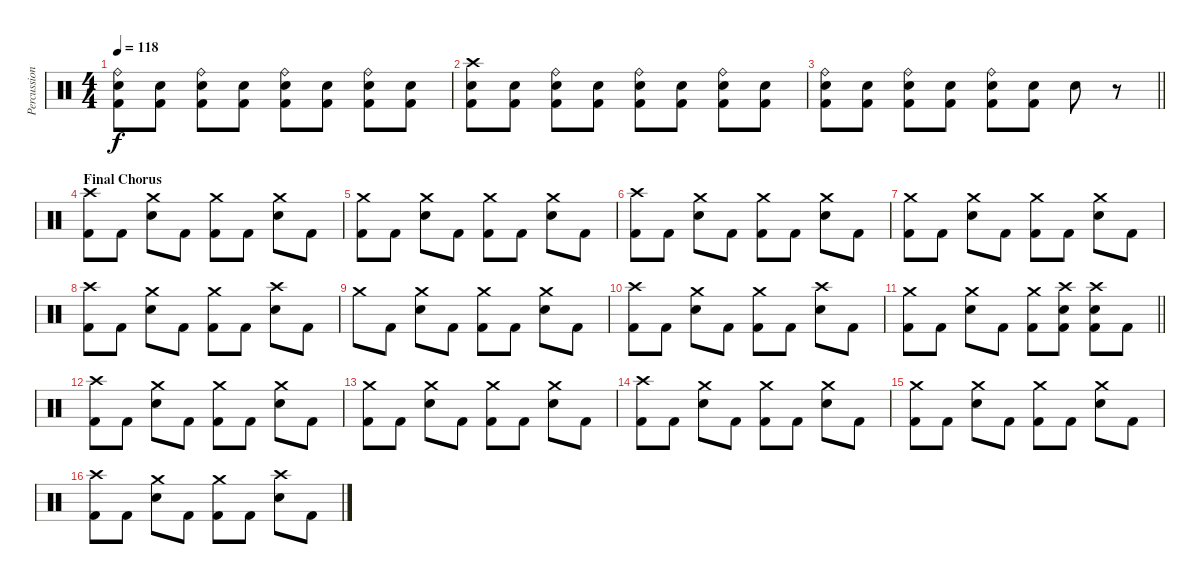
\track ("Percussion" "Percussion") {instrument percussion}
\staff {score}
\articulation defaults
\ts (4 4)
\tempo 118
\clef neutral
\ks c
("Ride (bell)" "Electric Snare (hit)" "Kick (hit) 2").8{dy f} ("Electric Snare (hit)" "Kick (hit) 2").8 ("Ride (bell)" "Electric Snare (hit)" "Kick (hit) 2").8 ("Electric Snare (hit)" "Kick (hit) 2").8 ("Ride (bell)" "Electric Snare (hit)" "Kick (hit) 2").8 ("Electric Snare (hit)" "Kick (hit) 2").8 ("Ride (bell)" "Electric Snare (hit)" "Kick (hit) 2").8 ("Electric Snare (hit)" "Kick (hit) 2").8 |
("Crash high (hit)" "Electric Snare (hit)" "Kick (hit) 2").8 ("Electric Snare (hit)" "Kick (hit) 2").8 ("Ride (bell)" "Electric Snare (hit)" "Kick (hit) 2").8 ("Electric Snare (hit)" "Kick (hit) 2").8 ("Ride (bell)" "Electric Snare (hit)" "Kick (hit) 2").8 ("Electric Snare (hit)" "Kick (hit) 2").8 ("Ride (bell)" "Electric Snare (hit)" "Kick (hit) 2").8 ("Electric Snare (hit)" "Kick (hit) 2").8 |
\barLineRight lightlight
("Ride (bell)" "Electric Snare (hit)" "Kick (hit) 2").8 ("Electric Snare (hit)" "Kick (hit) 2").8 ("Ride (bell)" "Electric Snare (hit)" "Kick (hit) 2").8 ("Electric Snare (hit)" "Kick (hit) 2").8 ("Ride (bell)" "Electric Snare (hit)" "Kick (hit) 2").8 ("Electric Snare (hit)" "Kick (hit) 2").8 "Electric Snare (hit)".8 r.8 |
\section ("" "Final Chorus")
("Crash high (hit)" "Kick (hit) 2").8 "Kick (hit) 2".8 ("Crash medium (hit)" "Electric Snare (hit)").8 "Kick (hit) 2".8 ("Crash medium (hit)" "Kick (hit) 2").8 "Kick (hit) 2".8 ("Crash medium (hit)" "Electric Snare (hit)").8 "Kick (hit) 2".8 |
("Crash medium (hit)" "Kick (hit) 2").8 "Kick (hit) 2".8 ("Crash medium (hit)" "Electric Snare (hit)").8 "Kick (hit) 2".8 ("Crash medium (hit)" "Kick (hit) 2").8 "Kick (hit) 2".8 ("Crash medium (hit)" "Electric Snare (hit)").8 "Kick (hit) 2".8 |
("Crash high (hit)" "Kick (hit) 2").8 "Kick (hit) 2".8 ("Crash medium (hit)" "Electric Snare (hit)").8 "Kick (hit) 2".8 ("Crash medium (hit)" "Kick (hit) 2").8 "Kick (hit) 2".8 ("Crash medium (hit)" "Electric Snare (hit)").8 "Kick (hit) 2".8 |
("Crash medium (hit)" "Kick (hit) 2").8 "Kick (hit) 2".8 ("Crash medium (hit)" "Electric Snare (hit)").8 "Kick (hit) 2".8 ("Crash medium (hit)" "Kick (hit) 2").8 "Kick (hit) 2".8 ("Crash medium (hit)" "Electric Snare (hit)").8 "Kick (hit) 2".8 |
("Crash high (hit)" "Kick (hit) 2").8 "Kick (hit) 2".8 ("Crash medium (hit)" "Electric Snare (hit)").8 "Kick (hit) 2".8 ("Crash medium (hit)" "Kick (hit) 2").8 "Kick (hit) 2".8 ("Crash high (hit)" "Electric Snare (hit)").8 "Kick (hit) 2".8 |
"Crash medium (hit)".8 "Kick (hit) 2".8 ("Crash medium (hit)" "Electric Snare (hit)").8 "Kick (hit) 2".8 ("Crash medium (hit)" "Kick (hit) 2").8 "Kick (hit) 2".8 ("Crash medium (hit)" "Electric Snare (hit)").8 "Kick (hit) 2".8 |
("Crash high (hit)" "Kick (hit) 2").8 "Kick (hit) 2".8 ("Crash medium (hit)" "Electric Snare (hit)").8 "Kick (hit) 2".8 ("Crash medium (hit)" "Kick (hit) 2").8 "Kick (hit) 2".8 ("Crash high (hit)" "Electric Snare (hit)").8 "Kick (hit) 2".8 |
\barLineRight lightlight
("Crash medium (hit)" "Kick (hit) 2").8 "Kick (hit) 2".8 ("Crash medium (hit)" "Electric Snare (hit)").8 "Kick (hit) 2".8 ("Crash medium (hit)" "Kick (hit) 2").8 ("Crash high (hit)" "Electric Snare (hit)" "Kick (hit) 2").8 ("Crash high (hit)" "Electric Snare (hit)" "Kick (hit) 2").8 "Kick (hit) 2".8 |
("Crash high (hit)" "Kick (hit) 2").8 "Kick (hit) 2".8 ("Crash medium (hit)" "Electric Snare (hit)").8 "Kick (hit) 2".8 ("Crash medium (hit)" "Kick (hit) 2").8 "Kick (hit) 2".8 ("Crash medium (hit)" "Electric Snare (hit)").8 "Kick (hit) 2".8 |
("Crash medium (hit)" "Kick (hit) 2").8 "Kick (hit) 2".8 ("Crash medium (hit)" "Electric Snare (hit)").8 "Kick (hit) 2".8 ("Crash medium (hit)" "Kick (hit) 2").8 "Kick (hit) 2".8 ("Crash medium (hit)" "Electric Snare (hit)").8 "Kick (hit) 2".8 |
("Crash high (hit)" "Kick (hit) 2").8 "Kick (hit) 2".8 ("Crash medium (hit)" "Electric Snare (hit)").8 "Kick (hit) 2".8 ("Crash medium (hit)" "Kick (hit) 2").8 "Kick (hit) 2".8 ("Crash medium (hit)" "Electric Snare (hit)").8 "Kick (hit) 2".8 |
("Crash medium (hit)" "Kick (hit) 2").8 "Kick (hit) 2".8 ("Crash medium (hit)" "Electric Snare (hit)").8 "Kick (hit) 2".8 ("Crash medium (hit)" "Kick (hit) 2").8 "Kick (hit) 2".8 ("Crash medium (hit)" "Electric Snare (hit)").8 "Kick (hit) 2".8 |
("Crash high (hit)" "Kick (hit) 2").8 "Kick (hit) 2".8 ("Crash medium (hit)" "Electric Snare (hit)").8 "Kick (hit) 2".8 ("Crash medium (hit)" "Kick (hit) 2").8 "Kick (hit) 2".8 ("Crash high (hit)" "Electric Snare (hit)").8 "Kick (hit) 2".8
